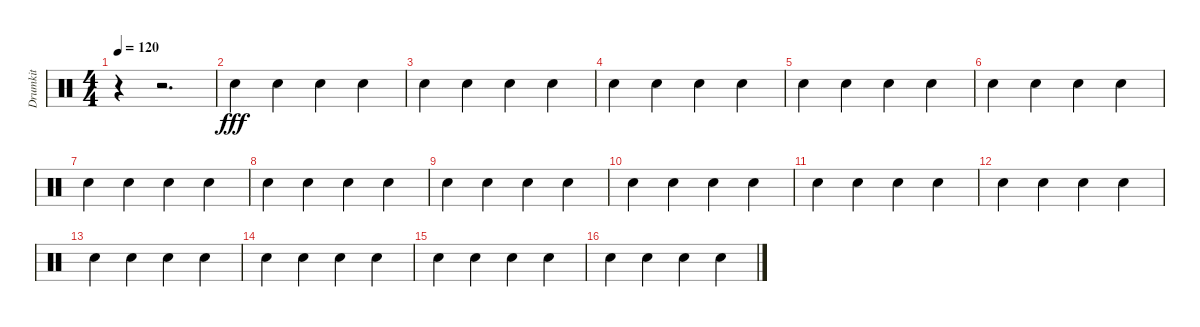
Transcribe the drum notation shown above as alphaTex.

\track ("Drumkit" "Drumkit") {instrument percussion}
\staff {score}
\articulation defaults
\ts (4 4)
\tempo 120
\clef neutral
\ks c
r.4{dy fff} r.2{d} |
"Snare (hit) 2".4 "Snare (hit) 2".4 "Snare (hit) 2".4 "Snare (hit) 2".4 |
"Snare (hit) 2".4 "Snare (hit) 2".4 "Snare (hit) 2".4 "Snare (hit) 2".4 |
"Snare (hit) 2".4 "Snare (hit) 2".4 "Snare (hit) 2".4 "Snare (hit) 2".4 |
"Snare (hit) 2".4 "Snare (hit) 2".4 "Snare (hit) 2".4 "Snare (hit) 2".4 |
"Snare (hit) 2".4 "Snare (hit) 2".4 "Snare (hit) 2".4 "Snare (hit) 2".4 |
"Snare (hit) 2".4 "Snare (hit) 2".4 "Snare (hit) 2".4 "Snare (hit) 2".4 |
"Snare (hit) 2".4 "Snare (hit) 2".4 "Snare (hit) 2".4 "Snare (hit) 2".4 |
"Snare (hit) 2".4 "Snare (hit) 2".4 "Snare (hit) 2".4 "Snare (hit) 2".4 |
"Snare (hit) 2".4 "Snare (hit) 2".4 "Snare (hit) 2".4 "Snare (hit) 2".4 |
"Snare (hit) 2".4 "Snare (hit) 2".4 "Snare (hit) 2".4 "Snare (hit) 2".4 |
"Snare (hit) 2".4 "Snare (hit) 2".4 "Snare (hit) 2".4 "Snare (hit) 2".4 |
"Snare (hit) 2".4 "Snare (hit) 2".4 "Snare (hit) 2".4 "Snare (hit) 2".4 |
"Snare (hit) 2".4 "Snare (hit) 2".4 "Snare (hit) 2".4 "Snare (hit) 2".4 |
"Snare (hit) 2".4 "Snare (hit) 2".4 "Snare (hit) 2".4 "Snare (hit) 2".4 |
"Snare (hit) 2".4 "Snare (hit) 2".4 "Snare (hit) 2".4 "Snare (hit) 2".4
